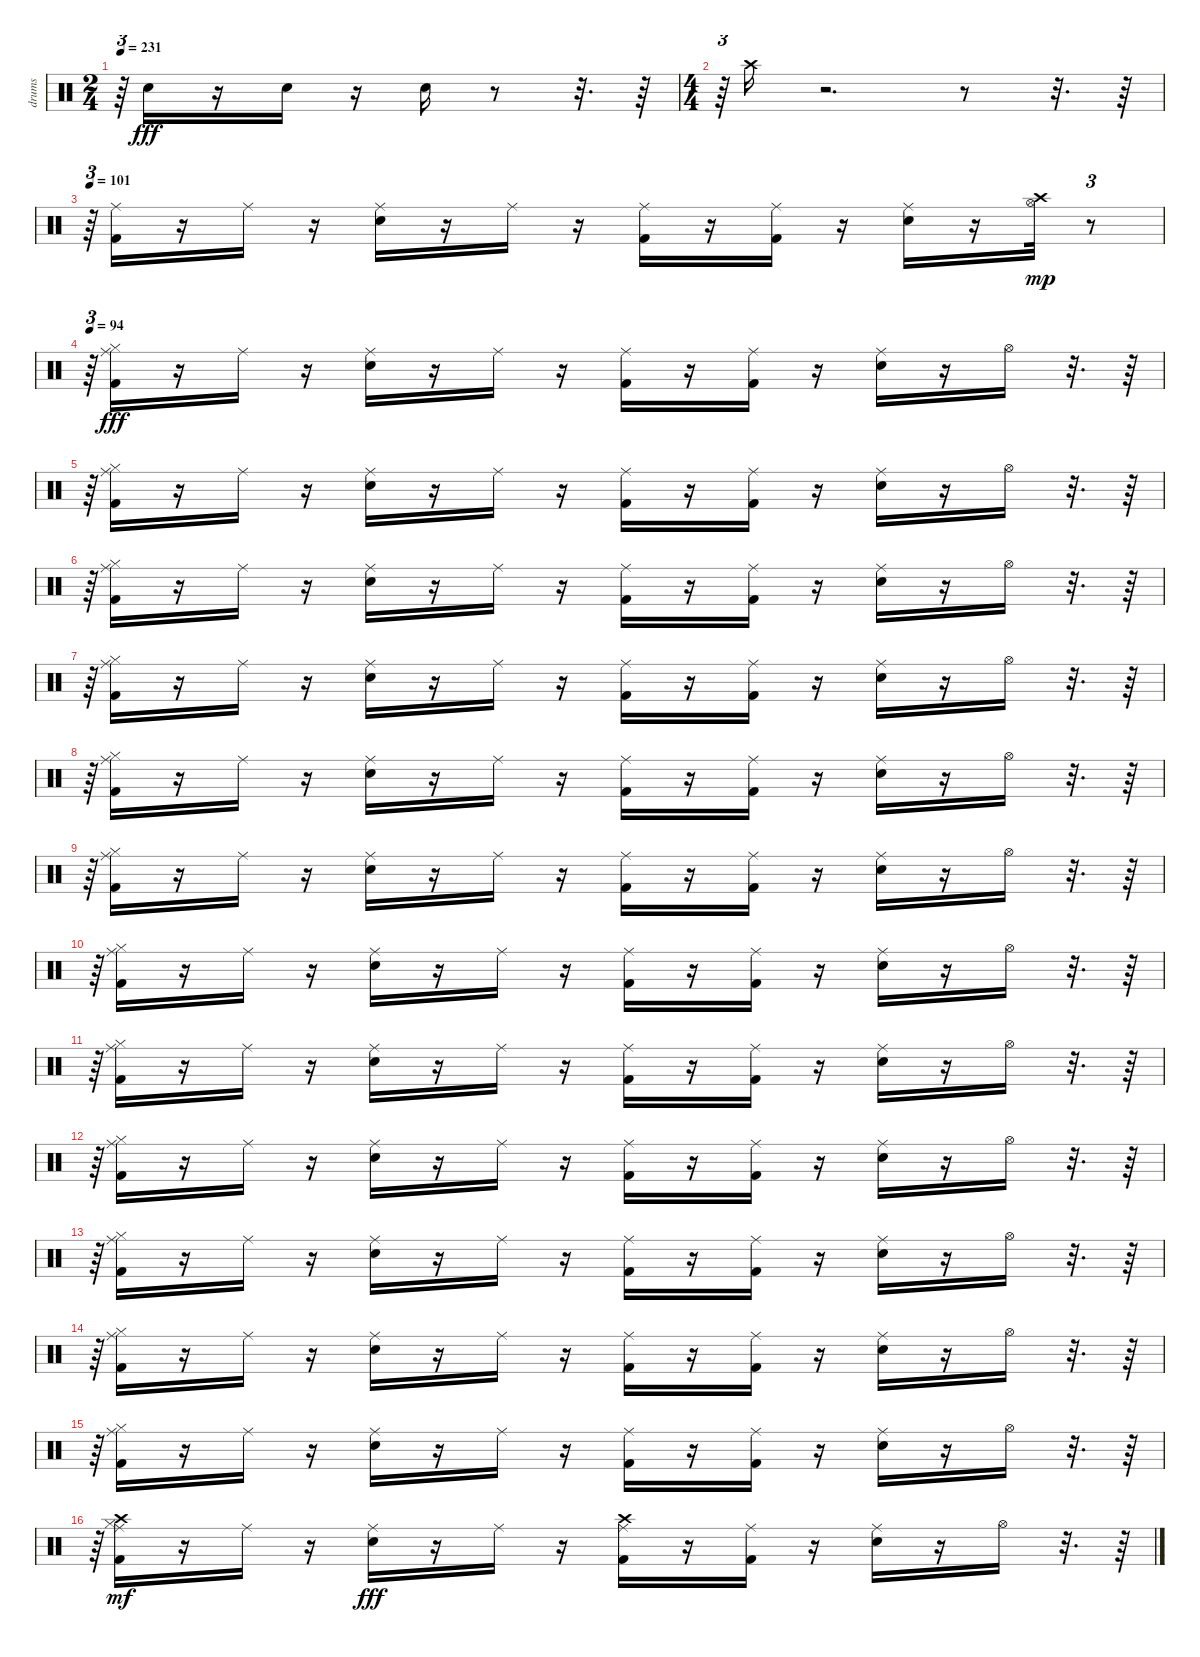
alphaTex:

\track ("drums               " "drums     ") {instrument percussion}
\staff {score}
\articulation defaults
\ts (2 4)
\tempo 231
\clef neutral
\ks c
r.64{tu (3 2) dy mf} "Snare (hit) 2".16{dy fff} r.16 "Snare (hit) 2".16 r.16 "Snare (hit) 2".16 r.8 r.32{d} r.64 |
\ts (4 4)
r.64{tu (3 2)} "Crash high (hit)".16 r.2{d} r.8 r.32{d} r.64 |
\tempo 101
r.64{tu (3 2)} ("Kick (hit) 2" "Ride (middle)").16 r.16 "Ride (middle)".16 r.16 ("Snare (hit) 2" "Ride (middle)").16 r.16 "Ride (middle)".16 r.16 ("Kick (hit) 2" "Ride (middle)").16 r.16 ("Kick (hit) 2" "Ride (middle)").16 r.16 ("Snare (hit) 2" "Ride (middle)").16 r.16 ("Hi-Hat (open)" "Crash high (hit)").32{dy mp} r.8{tu (3 2)} |
\tempo 94
r.64{tu (3 2)} ("Kick (hit) 2" "Ride (middle)" "Hi-Hat (closed)").16{dy fff} r.16 "Ride (middle)".16 r.16 ("Snare (hit) 2" "Ride (middle)").16 r.16 "Ride (middle)".16 r.16 ("Kick (hit) 2" "Ride (middle)").16 r.16 ("Kick (hit) 2" "Ride (middle)").16 r.16 ("Snare (hit) 2" "Ride (middle)").16 r.16 "Hi-Hat (open)".16 r.32{d} r.64 |
r.64{tu (3 2)} ("Kick (hit) 2" "Ride (middle)" "Hi-Hat (closed)").16 r.16 "Ride (middle)".16 r.16 ("Snare (hit) 2" "Ride (middle)").16 r.16 "Ride (middle)".16 r.16 ("Kick (hit) 2" "Ride (middle)").16 r.16 ("Kick (hit) 2" "Ride (middle)").16 r.16 ("Snare (hit) 2" "Ride (middle)").16 r.16 "Hi-Hat (open)".16 r.32{d} r.64 |
r.64{tu (3 2)} ("Kick (hit) 2" "Ride (middle)" "Hi-Hat (closed)").16 r.16 "Ride (middle)".16 r.16 ("Snare (hit) 2" "Ride (middle)").16 r.16 "Ride (middle)".16 r.16 ("Kick (hit) 2" "Ride (middle)").16 r.16 ("Kick (hit) 2" "Ride (middle)").16 r.16 ("Snare (hit) 2" "Ride (middle)").16 r.16 "Hi-Hat (open)".16 r.32{d} r.64 |
r.64{tu (3 2)} ("Kick (hit) 2" "Ride (middle)" "Hi-Hat (closed)").16 r.16 "Ride (middle)".16 r.16 ("Snare (hit) 2" "Ride (middle)").16 r.16 "Ride (middle)".16 r.16 ("Kick (hit) 2" "Ride (middle)").16 r.16 ("Kick (hit) 2" "Ride (middle)").16 r.16 ("Snare (hit) 2" "Ride (middle)").16 r.16 "Hi-Hat (open)".16 r.32{d} r.64 |
r.64{tu (3 2)} ("Kick (hit) 2" "Ride (middle)" "Hi-Hat (closed)").16 r.16 "Ride (middle)".16 r.16 ("Snare (hit) 2" "Ride (middle)").16 r.16 "Ride (middle)".16 r.16 ("Kick (hit) 2" "Ride (middle)").16 r.16 ("Kick (hit) 2" "Ride (middle)").16 r.16 ("Snare (hit) 2" "Ride (middle)").16 r.16 "Hi-Hat (open)".16 r.32{d} r.64 |
r.64{tu (3 2)} ("Kick (hit) 2" "Ride (middle)" "Hi-Hat (closed)").16 r.16 "Ride (middle)".16 r.16 ("Snare (hit) 2" "Ride (middle)").16 r.16 "Ride (middle)".16 r.16 ("Kick (hit) 2" "Ride (middle)").16 r.16 ("Kick (hit) 2" "Ride (middle)").16 r.16 ("Snare (hit) 2" "Ride (middle)").16 r.16 "Hi-Hat (open)".16 r.32{d} r.64 |
r.64{tu (3 2)} ("Kick (hit) 2" "Ride (middle)" "Hi-Hat (closed)").16 r.16 "Ride (middle)".16 r.16 ("Snare (hit) 2" "Ride (middle)").16 r.16 "Ride (middle)".16 r.16 ("Kick (hit) 2" "Ride (middle)").16 r.16 ("Kick (hit) 2" "Ride (middle)").16 r.16 ("Snare (hit) 2" "Ride (middle)").16 r.16 "Hi-Hat (open)".16 r.32{d} r.64 |
r.64{tu (3 2)} ("Kick (hit) 2" "Ride (middle)" "Hi-Hat (closed)").16 r.16 "Ride (middle)".16 r.16 ("Snare (hit) 2" "Ride (middle)").16 r.16 "Ride (middle)".16 r.16 ("Kick (hit) 2" "Ride (middle)").16 r.16 ("Kick (hit) 2" "Ride (middle)").16 r.16 ("Snare (hit) 2" "Ride (middle)").16 r.16 "Hi-Hat (open)".16 r.32{d} r.64 |
r.64{tu (3 2)} ("Kick (hit) 2" "Ride (middle)" "Hi-Hat (closed)").16 r.16 "Ride (middle)".16 r.16 ("Snare (hit) 2" "Ride (middle)").16 r.16 "Ride (middle)".16 r.16 ("Kick (hit) 2" "Ride (middle)").16 r.16 ("Kick (hit) 2" "Ride (middle)").16 r.16 ("Snare (hit) 2" "Ride (middle)").16 r.16 "Hi-Hat (open)".16 r.32{d} r.64 |
r.64{tu (3 2)} ("Kick (hit) 2" "Ride (middle)" "Hi-Hat (closed)").16 r.16 "Ride (middle)".16 r.16 ("Snare (hit) 2" "Ride (middle)").16 r.16 "Ride (middle)".16 r.16 ("Kick (hit) 2" "Ride (middle)").16 r.16 ("Kick (hit) 2" "Ride (middle)").16 r.16 ("Snare (hit) 2" "Ride (middle)").16 r.16 "Hi-Hat (open)".16 r.32{d} r.64 |
r.64{tu (3 2)} ("Kick (hit) 2" "Ride (middle)" "Hi-Hat (closed)").16 r.16 "Ride (middle)".16 r.16 ("Snare (hit) 2" "Ride (middle)").16 r.16 "Ride (middle)".16 r.16 ("Kick (hit) 2" "Ride (middle)").16 r.16 ("Kick (hit) 2" "Ride (middle)").16 r.16 ("Snare (hit) 2" "Ride (middle)").16 r.16 "Hi-Hat (open)".16 r.32{d} r.64 |
r.64{tu (3 2)} ("Kick (hit) 2" "Ride (middle)" "Hi-Hat (closed)").16 r.16 "Ride (middle)".16 r.16 ("Snare (hit) 2" "Ride (middle)").16 r.16 "Ride (middle)".16 r.16 ("Kick (hit) 2" "Ride (middle)").16 r.16 ("Kick (hit) 2" "Ride (middle)").16 r.16 ("Snare (hit) 2" "Ride (middle)").16 r.16 "Hi-Hat (open)".16 r.32{d} r.64 |
r.64{tu (3 2)} ("Kick (hit) 2" "Ride (middle)" "Hi-Hat (closed)" "Crash high (hit)").16{dy mf} r.16 "Ride (middle)".16 r.16 ("Snare (hit) 2" "Ride (middle)").16{dy fff} r.16 "Ride (middle)".16 r.16 ("Kick (hit) 2" "Crash high (hit)" "Ride (middle)").16 r.16 ("Kick (hit) 2" "Ride (middle)").16 r.16 ("Snare (hit) 2" "Ride (middle)").16 r.16 "Hi-Hat (open)".16 r.32{d} r.64
